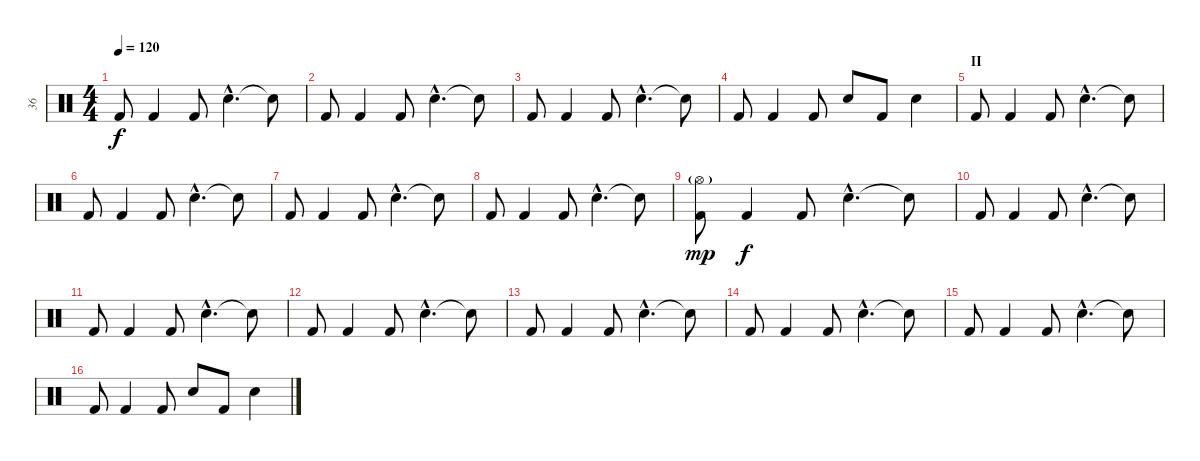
\track ("36" "36") {instrument percussion}
\staff {score}
\articulation defaults
\ts (4 4)
\tempo 120
\clef neutral
\ks c "Kick (hit) 2".8{dy f} "Kick (hit) 2".4 "Kick (hit) 2".8 "Electric Snare (hit)"{hac}.4{d} "Snare (hit)"{t}.8
|
"Kick (hit) 2".8 "Kick (hit) 2".4 "Kick (hit) 2".8 "Electric Snare (hit)"{hac}.4{d} "Snare (hit)"{t}.8 |
"Kick (hit) 2".8 "Kick (hit) 2".4 "Kick (hit) 2".8 "Electric Snare (hit)"{hac}.4{d} "Snare (hit)"{t}.8 |
"Kick (hit) 2".8 "Kick (hit) 2".4 "Kick (hit) 2".8 "Electric Snare (hit)".8 "Kick (hit) 2".8 "Electric Snare (hit)".4 |
\section ("" "II")
"Kick (hit) 2".8 "Kick (hit) 2".4 "Kick (hit) 2".8 "Electric Snare (hit)"{hac}.4{d} "Snare (hit)"{t}.8 |
"Kick (hit) 2".8 "Kick (hit) 2".4 "Kick (hit) 2".8 "Electric Snare (hit)"{hac}.4{d} "Snare (hit)"{t}.8 |
"Kick (hit) 2".8 "Kick (hit) 2".4 "Kick (hit) 2".8 "Electric Snare (hit)"{hac}.4{d} "Snare (hit)"{t}.8 |
"Kick (hit) 2".8 "Kick (hit) 2".4 "Kick (hit) 2".8 "Electric Snare (hit)"{hac}.4{d} "Snare (hit)"{t}.8 |
("Kick (hit) 2" "Hi-Hat (open)"{g}).8{dy mp} "Kick (hit) 2".4{dy f} "Kick (hit) 2".8 "Electric Snare (hit)"{hac}.4{d} "Snare (hit)"{t}.8 |
"Kick (hit) 2".8 "Kick (hit) 2".4 "Kick (hit) 2".8 "Electric Snare (hit)"{hac}.4{d} "Snare (hit)"{t}.8 |
"Kick (hit) 2".8 "Kick (hit) 2".4 "Kick (hit) 2".8 "Electric Snare (hit)"{hac}.4{d} "Snare (hit)"{t}.8 |
"Kick (hit) 2".8 "Kick (hit) 2".4 "Kick (hit) 2".8 "Electric Snare (hit)"{hac}.4{d} "Snare (hit)"{t}.8 |
"Kick (hit) 2".8 "Kick (hit) 2".4 "Kick (hit) 2".8 "Electric Snare (hit)"{hac}.4{d} "Snare (hit)"{t}.8 |
"Kick (hit) 2".8 "Kick (hit) 2".4 "Kick (hit) 2".8 "Electric Snare (hit)"{hac}.4{d} "Snare (hit)"{t}.8 |
"Kick (hit) 2".8 "Kick (hit) 2".4 "Kick (hit) 2".8 "Electric Snare (hit)"{hac}.4{d} "Snare (hit)"{t}.8 |
"Kick (hit) 2".8 "Kick (hit) 2".4 "Kick (hit) 2".8 "Electric Snare (hit)".8 "Kick (hit) 2".8 "Electric Snare (hit)".4
